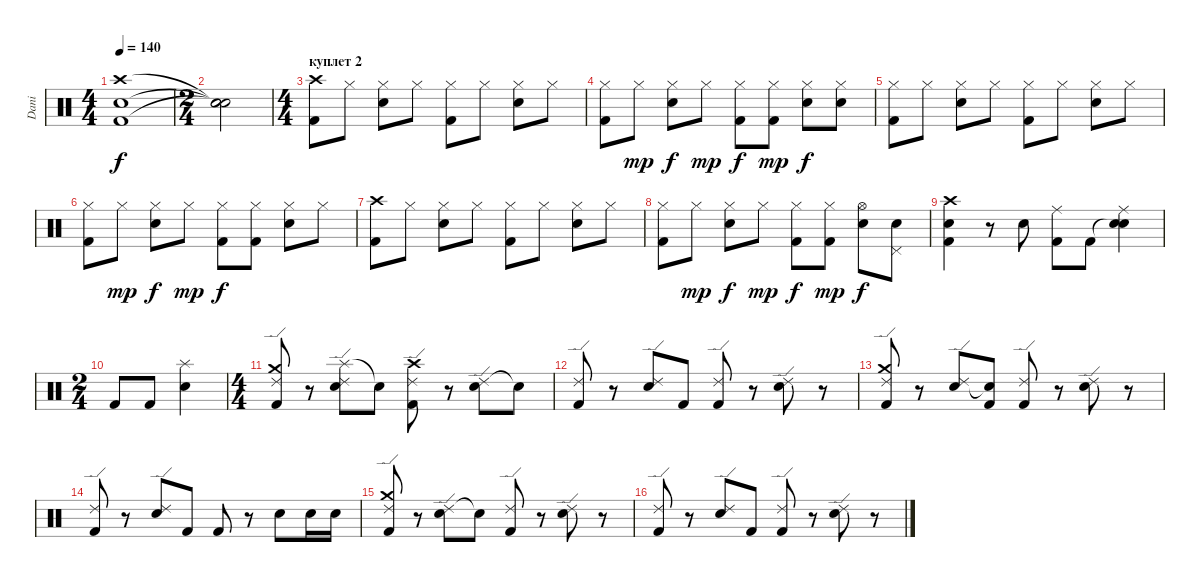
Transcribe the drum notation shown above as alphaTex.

\track ("Dani" "Dani") {instrument percussion}
\staff {score}
\articulation defaults
\ts (4 4)
\tempo 140
\clef neutral
\ks c
("Crash high (hit)" "Snare (hit) 2" "Kick (hit) 2").1{dy f} |
\ts (2 4)
("Snare (hit)"{t} "Snare (hit)"{t} "Snare (hit)"{t}).2 |
\ts (4 4)
\section ("" "куплет 2")
("Crash high (hit)" "Kick (hit) 2").8 "Hi-Hat (closed)".8 ("Hi-Hat (closed)" "Snare (hit) 2").8 "Hi-Hat (closed)".8 ("Hi-Hat (closed)" "Kick (hit) 2").8 "Hi-Hat (closed)".8 ("Hi-Hat (closed)" "Snare (hit) 2").8 "Hi-Hat (closed)".8 |
("Hi-Hat (closed)" "Kick (hit) 2").8 "Hi-Hat (closed)".8{dy mp} ("Hi-Hat (closed)" "Snare (hit) 2").8{dy f} "Hi-Hat (closed)".8{dy mp} ("Hi-Hat (closed)" "Kick (hit) 2").8{dy f} ("Hi-Hat (closed)" "Kick (hit) 2").8{dy mp} ("Hi-Hat (closed)" "Snare (hit) 2").8{dy f} ("Hi-Hat (closed)" "Snare (hit) 2").8 |
("Hi-Hat (closed)" "Kick (hit) 2").8 "Hi-Hat (closed)".8 ("Hi-Hat (closed)" "Snare (hit) 2").8 "Hi-Hat (closed)".8 ("Hi-Hat (closed)" "Kick (hit) 2").8 "Hi-Hat (closed)".8 ("Hi-Hat (closed)" "Snare (hit) 2").8 "Hi-Hat (closed)".8 |
("Hi-Hat (closed)" "Kick (hit) 2").8 "Hi-Hat (closed)".8{dy mp} ("Hi-Hat (closed)" "Snare (hit) 2").8{dy f} "Hi-Hat (closed)".8{dy mp} ("Hi-Hat (closed)" "Kick (hit) 2").8{dy f} ("Hi-Hat (closed)" "Kick (hit) 2").8 ("Hi-Hat (closed)" "Snare (hit) 2").8 "Hi-Hat (closed)".8 |
("Crash high (hit)" "Kick (hit) 2").8 "Hi-Hat (closed)".8 ("Hi-Hat (closed)" "Snare (hit) 2").8 "Hi-Hat (closed)".8 ("Hi-Hat (closed)" "Kick (hit) 2").8 "Hi-Hat (closed)".8 ("Hi-Hat (closed)" "Snare (hit) 2").8 "Hi-Hat (closed)".8 |
("Hi-Hat (closed)" "Kick (hit) 2").8 "Hi-Hat (closed)".8{dy mp} ("Hi-Hat (closed)" "Snare (hit) 2").8{dy f} "Hi-Hat (closed)".8{dy mp} ("Hi-Hat (closed)" "Kick (hit) 2").8{dy f} ("Hi-Hat (closed)" "Kick (hit) 2").8{dy mp} ("Hi-Hat (open)" "Snare (hit) 2").8{dy f} ("Pedal Hi-Hat (hit)" "Snare (hit) 2").8 |
("Crash high (hit)" "Snare (hit) 2" "Kick (hit) 2").4 r.8 "Snare (hit) 2".8 ("Ride (middle)" "Kick (hit) 2").8 "Kick (hit) 2".8 ("Snare (hit)"{t} "Ride (middle)" "Snare (hit) 2").4 |
\ts (2 4)
"Kick (hit) 2".8 "Kick (hit) 2".8 ("Splash (hit)" "Snare (hit) 2").4 |
\ts (4 4)
("Crash medium (hit)" "Ride (edge) 2" "Kick (hit) 2").8 r.8 ("Splash (hit)" "Ride (edge) 2" "Snare (hit) 2").8 "Snare (hit)"{t}.8 ("Crash high (hit)" "Ride (edge) 2" "Kick (hit) 2").8 r.8 ("Ride (edge) 2" "Snare (hit) 2").8 "Snare (hit)"{t}.8 |
("Ride (edge) 2" "Kick (hit) 2").8 r.8 ("Ride (edge) 2" "Snare (hit) 2").8 "Kick (hit) 2".8 ("Ride (edge) 2" "Kick (hit) 2").8 r.8 ("Ride (edge) 2" "Snare (hit) 2").8 r.8 |
("Crash medium (hit)" "Ride (edge) 2" "Kick (hit) 2").8 r.8 ("Ride (edge) 2" "Snare (hit) 2").8 ("Snare (hit)"{t} "Kick (hit) 2").8 ("Ride (edge) 2" "Kick (hit) 2").8 r.8 ("Ride (edge) 2" "Snare (hit) 2").8 r.8 |
("Ride (edge) 2" "Kick (hit) 2").8 r.8 ("Ride (edge) 2" "Snare (hit) 2").8 "Kick (hit) 2".8 "Kick (hit) 2".8 r.8 "Snare (hit) 2".8 "Snare (hit) 2".16 "Snare (hit) 2".16 |
("Crash medium (hit)" "Ride (edge) 2" "Kick (hit) 2").8 r.8 ("Ride (edge) 2" "Snare (hit) 2").8 "Snare (hit)"{t}.8 ("Ride (edge) 2" "Kick (hit) 2").8 r.8 ("Ride (edge) 2" "Snare (hit) 2").8 r.8 |
("Ride (edge) 2" "Kick (hit) 2").8 r.8 ("Ride (edge) 2" "Snare (hit) 2").8 "Kick (hit) 2".8 ("Ride (edge) 2" "Kick (hit) 2").8 r.8 ("Ride (edge) 2" "Snare (hit) 2").8 r.8
